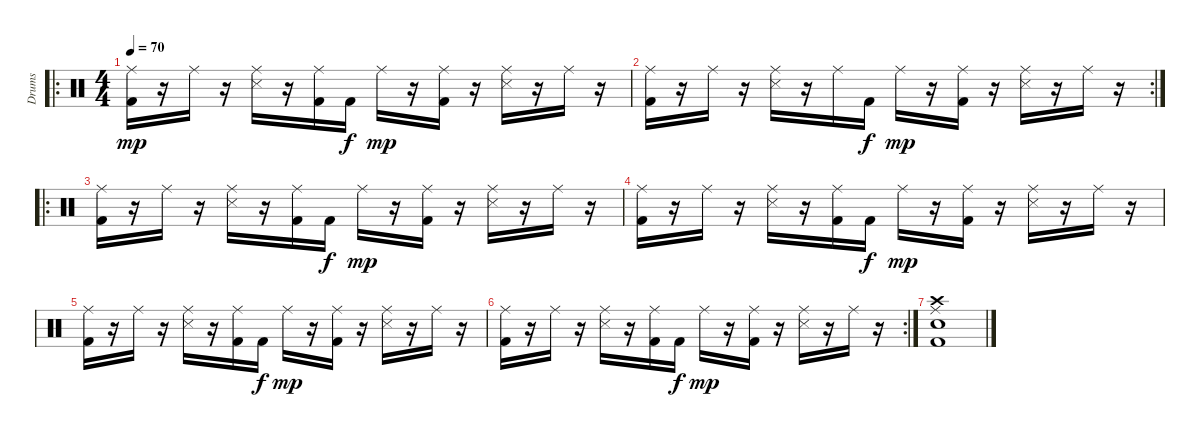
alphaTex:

\track ("Drums" "Drums") {instrument percussion}
\staff {score}
\articulation defaults
\ro
\ts (4 4)
\tempo 70
\clef neutral
\ks c
("Ride (middle)" "Kick (hit) 2").16{dy mp} r.16 "Ride (middle)".16 r.16 ("Ride (middle)" "Snare (side stick) 3").16 r.16 ("Ride (middle)" "Kick (hit) 2").16 "Kick (hit) 2".16{dy f} "Ride (middle)".16{dy mp} r.16 ("Ride (middle)" "Kick (hit) 2").16 r.16 ("Ride (middle)" "Snare (side stick) 3").16 r.16 "Ride (middle)".16 r.16 |
\rc 2
("Ride (middle)" "Kick (hit) 2").16 r.16 "Ride (middle)".16 r.16 ("Ride (middle)" "Snare (side stick) 3").16 r.16 "Ride (middle)".16 "Kick (hit) 2".16{dy f} "Ride (middle)".16{dy mp} r.16 ("Ride (middle)" "Kick (hit) 2").16 r.16 ("Ride (middle)" "Snare (side stick) 3").16 r.16 "Ride (middle)".16 r.16 |
\ro
("Ride (middle)" "Kick (hit) 2").16 r.16 "Ride (middle)".16 r.16 ("Ride (middle)" "Snare (side stick) 3").16 r.16 ("Ride (middle)" "Kick (hit) 2").16 "Kick (hit) 2".16{dy f} "Ride (middle)".16{dy mp} r.16 ("Ride (middle)" "Kick (hit) 2").16 r.16 ("Ride (middle)" "Snare (side stick) 3").16 r.16 "Ride (middle)".16 r.16 |
("Ride (middle)" "Kick (hit) 2").16 r.16 "Ride (middle)".16 r.16 ("Ride (middle)" "Snare (side stick) 3").16 r.16 ("Ride (middle)" "Kick (hit) 2").16 "Kick (hit) 2".16{dy f} "Ride (middle)".16{dy mp} r.16 ("Ride (middle)" "Kick (hit) 2").16 r.16 ("Ride (middle)" "Snare (side stick) 3").16 r.16 "Ride (middle)".16 r.16 |
("Ride (middle)" "Kick (hit) 2").16 r.16 "Ride (middle)".16 r.16 ("Ride (middle)" "Snare (side stick) 3").16 r.16 ("Ride (middle)" "Kick (hit) 2").16 "Kick (hit) 2".16{dy f} "Ride (middle)".16{dy mp} r.16 ("Ride (middle)" "Kick (hit) 2").16 r.16 ("Ride (middle)" "Snare (side stick) 3").16 r.16 "Ride (middle)".16 r.16 |
\rc 2
("Ride (middle)" "Kick (hit) 2").16 r.16 "Ride (middle)".16 r.16 ("Ride (middle)" "Snare (side stick) 3").16 r.16 ("Ride (middle)" "Kick (hit) 2").16 "Kick (hit) 2".16{dy f} "Ride (middle)".16{dy mp} r.16 ("Ride (middle)" "Kick (hit) 2").16 r.16 ("Ride (middle)" "Snare (side stick) 3").16 r.16 "Ride (middle)".16 r.16 |
("Ride (middle)" "Electric Snare (hit)" "Crash high (hit)" "Kick (hit) 2").1
